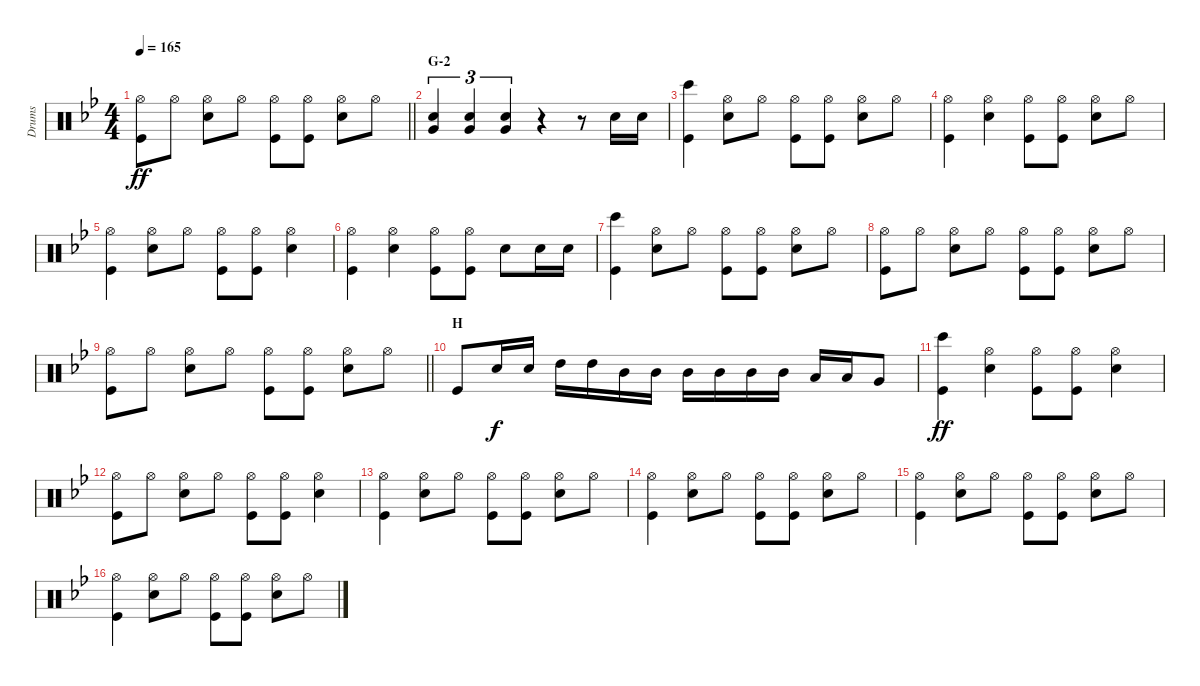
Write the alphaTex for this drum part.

\track ("Drums" "Drums") {instrument percussion}
\staff {score}
\articulation defaults
\ts (4 4)
\tempo 165
\clef neutral
\barLineRight lightlight
\ks bb
("Hi-Hat (open)" "Kick (hit)").8{dy ff} "Hi-Hat (open)".8 ("Hi-Hat (open)" "Snare (hit) 2").8 "Hi-Hat (open)".8 ("Hi-Hat (open)" "Kick (hit)").8 ("Hi-Hat (open)" "Kick (hit)").8 ("Hi-Hat (open)" "Snare (hit) 2").8 "Hi-Hat (open)".8 |
\section ("" "G-2")
("Very Low Tom (hit)" "Snare (hit) 2").4{tu (3 2)} ("Very Low Tom (hit)" "Snare (hit) 2").4{tu (3 2)} ("Very Low Tom (hit)" "Snare (hit) 2").4{tu (3 2)} r.4 r.8 "Snare (hit) 2".16 "Snare (hit) 2".16 |
("Bongo High (hit)" "Kick (hit)").4 ("Hi-Hat (open)" "Snare (hit) 2").8 "Hi-Hat (open)".8 ("Hi-Hat (open)" "Kick (hit)").8 ("Hi-Hat (open)" "Kick (hit)").8 ("Hi-Hat (open)" "Snare (hit) 2").8 "Hi-Hat (open)".8 |
("Hi-Hat (open)" "Kick (hit)").4 ("Hi-Hat (open)" "Snare (hit) 2").4 ("Hi-Hat (open)" "Kick (hit)").8 ("Hi-Hat (open)" "Kick (hit)").8 ("Hi-Hat (open)" "Snare (hit) 2").8 "Hi-Hat (open)".8 |
("Hi-Hat (open)" "Kick (hit)").4 ("Hi-Hat (open)" "Snare (hit) 2").8 "Hi-Hat (open)".8 ("Hi-Hat (open)" "Kick (hit)").8 ("Hi-Hat (open)" "Kick (hit)").8 ("Hi-Hat (open)" "Snare (hit) 2").4 |
("Hi-Hat (open)" "Kick (hit)").4 ("Hi-Hat (open)" "Snare (hit) 2").4 ("Hi-Hat (open)" "Kick (hit)").8 ("Hi-Hat (open)" "Kick (hit)").8 "Snare (hit) 2".8 "Snare (hit) 2".16 "Snare (hit) 2".16 |
("Bongo High (hit)" "Kick (hit)").4 ("Hi-Hat (open)" "Snare (hit) 2").8 "Hi-Hat (open)".8 ("Hi-Hat (open)" "Kick (hit)").8 ("Hi-Hat (open)" "Kick (hit)").8 ("Hi-Hat (open)" "Snare (hit) 2").8 "Hi-Hat (open)".8 |
("Hi-Hat (open)" "Kick (hit)").8 "Hi-Hat (open)".8 ("Hi-Hat (open)" "Snare (hit) 2").8 "Hi-Hat (open)".8 ("Hi-Hat (open)" "Kick (hit)").8 ("Hi-Hat (open)" "Kick (hit)").8 ("Hi-Hat (open)" "Snare (hit) 2").8 "Hi-Hat (open)".8 |
\barLineRight lightlight
("Hi-Hat (open)" "Kick (hit)").8 "Hi-Hat (open)".8 ("Hi-Hat (open)" "Snare (hit) 2").8 "Hi-Hat (open)".8 ("Hi-Hat (open)" "Kick (hit)").8 ("Hi-Hat (open)" "Kick (hit)").8 ("Hi-Hat (open)" "Snare (hit) 2").8 "Hi-Hat (open)".8 |
\section ("" "H")
"Kick (hit)".8 "Snare (hit) 2".16{dy f} "Snare (hit) 2".16 "High Tom (hit)".16 "High Tom (hit)".16 "Mid Tom (hit)".16 "Mid Tom (hit)".16 "Mid Tom (hit)".16 "Mid Tom (hit)".16 "Mid Tom (hit)".16 "Mid Tom (hit)".16 "Low Tom (hit)".16 "Low Tom (hit)".16 "Very Low Tom (hit)".8 |
("Bongo High (hit)" "Kick (hit)").4{dy ff} ("Hi-Hat (open)" "Snare (hit) 2").4 ("Hi-Hat (open)" "Kick (hit)").8 ("Hi-Hat (open)" "Kick (hit)").8 ("Hi-Hat (open)" "Snare (hit) 2").4 |
("Hi-Hat (open)" "Kick (hit)").8 "Hi-Hat (open)".8 ("Hi-Hat (open)" "Snare (hit) 2").8 "Hi-Hat (open)".8 ("Hi-Hat (open)" "Kick (hit)").8 ("Hi-Hat (open)" "Kick (hit)").8 ("Hi-Hat (open)" "Snare (hit) 2").4 |
("Hi-Hat (open)" "Kick (hit)").4 ("Hi-Hat (open)" "Snare (hit) 2").8 "Hi-Hat (open)".8 ("Hi-Hat (open)" "Kick (hit)").8 ("Hi-Hat (open)" "Kick (hit)").8 ("Hi-Hat (open)" "Snare (hit) 2").8 "Hi-Hat (open)".8 |
("Hi-Hat (open)" "Kick (hit)").4 ("Hi-Hat (open)" "Snare (hit) 2").8 "Hi-Hat (open)".8 ("Hi-Hat (open)" "Kick (hit)").8 ("Hi-Hat (open)" "Kick (hit)").8 ("Hi-Hat (open)" "Snare (hit) 2").8 "Hi-Hat (open)".8 |
("Hi-Hat (open)" "Kick (hit)").4 ("Hi-Hat (open)" "Snare (hit) 2").8 "Hi-Hat (open)".8 ("Hi-Hat (open)" "Kick (hit)").8 ("Hi-Hat (open)" "Kick (hit)").8 ("Hi-Hat (open)" "Snare (hit) 2").8 "Hi-Hat (open)".8 |
("Hi-Hat (open)" "Kick (hit)").4 ("Hi-Hat (open)" "Snare (hit) 2").8 "Hi-Hat (open)".8 ("Hi-Hat (open)" "Kick (hit)").8 ("Hi-Hat (open)" "Kick (hit)").8 ("Hi-Hat (open)" "Snare (hit) 2").8 "Hi-Hat (open)".8
